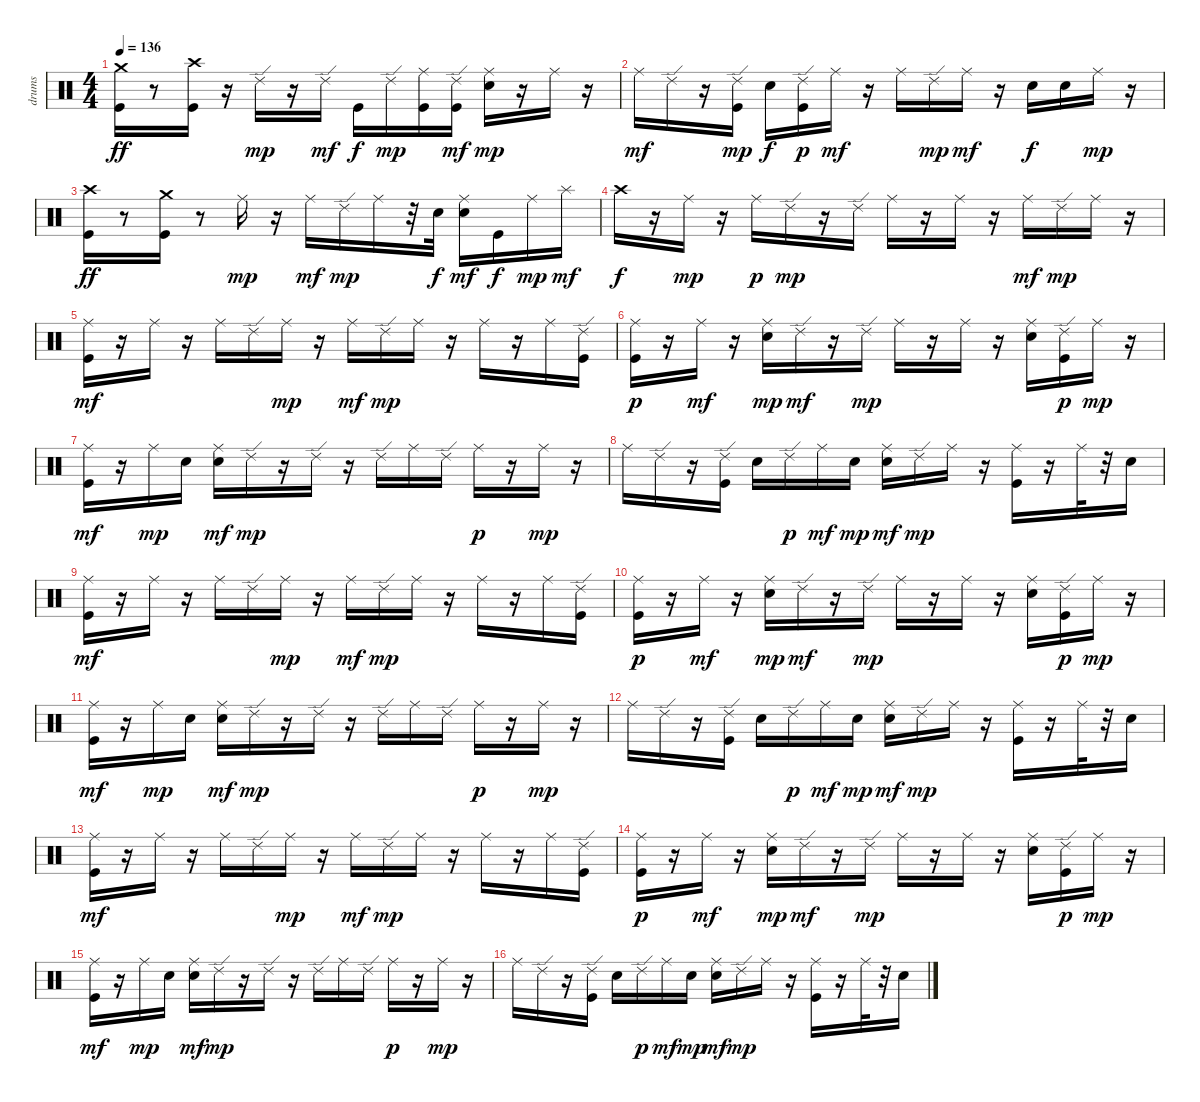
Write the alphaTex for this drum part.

\track ("drums   " "drums   ") {instrument percussion}
\staff {score}
\articulation defaults
\ts (4 4)
\tempo 136
\clef neutral
\ks c
("Kick (hit)" "Crash medium (hit)").16{dy ff} r.8 ("Kick (hit)" "Crash high (hit)").16 r.16 "Ride (edge) 2".16{dy mp} r.16 "Ride (edge) 2".16{dy mf} "Kick (hit)".16{dy f} "Ride (edge) 2".16{dy mp} ("Kick (hit)" "Ride (middle)").16 ("Kick (hit)" "Ride (edge) 2").16{dy mf} ("Electric Snare (hit)" "Ride (middle)").16{dy mp} r.16 "Ride (middle)".16 r.16 |
"Ride (middle)".16{dy mf} "Ride (edge) 2".16 r.16 ("Kick (hit)" "Ride (edge) 2").16{dy mp} "Electric Snare (hit)".16{dy f} ("Kick (hit)" "Ride (edge) 2").16{dy p} "Ride (middle)".16{dy mf} r.16 "Ride (middle)".16 "Ride (edge) 2".16{dy mp} "Ride (middle)".16{dy mf} r.16 "Electric Snare (hit)".16{dy f} "Electric Snare (hit)".16 "Ride (middle)".16{dy mp} r.16 |
("Kick (hit)" "Crash high (hit)").16{dy ff} r.8 ("Kick (hit)" "Crash medium (hit)").16 r.8 "Ride (middle)".16{dy mp} r.16 "Ride (middle)".16{dy mf} "Ride (edge) 2".16{dy mp} "Ride (middle)".16 r.32 "Electric Snare (hit)".32{dy f} ("Electric Snare (hit)" "Ride (middle)").16{dy mf} "Kick (hit)".16{dy f} "Ride (middle)".16{dy mp} "Splash (hit)".16{dy mf} |
"Crash high (hit)".16{dy f} r.16 "Ride (middle)".16{dy mp} r.16 "Ride (middle)".16{dy p} "Ride (edge) 2".16{dy mp} r.16 "Ride (edge) 2".16 "Ride (middle)".16 r.16 "Ride (middle)".16 r.16 "Ride (middle)".16{dy mf} "Ride (edge) 2".16{dy mp} "Ride (middle)".16 r.16 |
("Kick (hit)" "Ride (middle)").16{dy mf} r.16 "Ride (middle)".16 r.16 "Ride (middle)".16 "Ride (edge) 2".16 "Ride (middle)".16{dy mp} r.16 "Ride (middle)".16{dy mf} "Ride (edge) 2".16{dy mp} "Ride (middle)".16 r.16 "Ride (middle)".16 r.16 "Ride (middle)".16 ("Kick (hit)" "Ride (edge) 2").16 |
("Kick (hit)" "Ride (middle)").16{dy p} r.16 "Ride (middle)".16{dy mf} r.16 ("Electric Snare (hit)" "Ride (middle)").16{dy mp} "Ride (edge) 2".16{dy mf} r.16 "Ride (edge) 2".16{dy mp} "Ride (middle)".16 r.16 "Ride (middle)".16 r.16 ("Electric Snare (hit)" "Ride (middle)").16 ("Kick (hit)" "Ride (edge) 2").16{dy p} "Ride (middle)".16{dy mp} r.16 |
("Kick (hit)" "Ride (middle)").16{dy mf} r.16 "Ride (middle)".16{dy mp} "Electric Snare (hit)".16 ("Electric Snare (hit)" "Ride (middle)").16{dy mf} "Ride (edge) 2".16{dy mp} r.16 "Ride (edge) 2".16 r.16 "Ride (edge) 2".16 "Ride (middle)".16 "Ride (edge) 2".16 "Ride (middle)".16{dy p} r.16 "Ride (middle)".16{dy mp} r.16 |
"Ride (middle)".16 "Ride (edge) 2".16 r.16 ("Kick (hit)" "Ride (edge) 2").16 "Electric Snare (hit)".16 "Ride (edge) 2".16{dy p} "Ride (middle)".16{dy mf} "Electric Snare (hit)".16{dy mp} ("Electric Snare (hit)" "Ride (middle)").16{dy mf} "Ride (edge) 2".16{dy mp} "Ride (middle)".16 r.16 ("Kick (hit)" "Ride (middle)").16 r.16 "Ride (middle)".32 r.32 "Electric Snare (hit)".16 |
("Kick (hit)" "Ride (middle)").16{dy mf} r.16 "Ride (middle)".16 r.16 "Ride (middle)".16 "Ride (edge) 2".16 "Ride (middle)".16{dy mp} r.16 "Ride (middle)".16{dy mf} "Ride (edge) 2".16{dy mp} "Ride (middle)".16 r.16 "Ride (middle)".16 r.16 "Ride (middle)".16 ("Kick (hit)" "Ride (edge) 2").16 |
("Kick (hit)" "Ride (middle)").16{dy p} r.16 "Ride (middle)".16{dy mf} r.16 ("Electric Snare (hit)" "Ride (middle)").16{dy mp} "Ride (edge) 2".16{dy mf} r.16 "Ride (edge) 2".16{dy mp} "Ride (middle)".16 r.16 "Ride (middle)".16 r.16 ("Electric Snare (hit)" "Ride (middle)").16 ("Kick (hit)" "Ride (edge) 2").16{dy p} "Ride (middle)".16{dy mp} r.16 |
("Kick (hit)" "Ride (middle)").16{dy mf} r.16 "Ride (middle)".16{dy mp} "Electric Snare (hit)".16 ("Electric Snare (hit)" "Ride (middle)").16{dy mf} "Ride (edge) 2".16{dy mp} r.16 "Ride (edge) 2".16 r.16 "Ride (edge) 2".16 "Ride (middle)".16 "Ride (edge) 2".16 "Ride (middle)".16{dy p} r.16 "Ride (middle)".16{dy mp} r.16 |
"Ride (middle)".16 "Ride (edge) 2".16 r.16 ("Kick (hit)" "Ride (edge) 2").16 "Electric Snare (hit)".16 "Ride (edge) 2".16{dy p} "Ride (middle)".16{dy mf} "Electric Snare (hit)".16{dy mp} ("Electric Snare (hit)" "Ride (middle)").16{dy mf} "Ride (edge) 2".16{dy mp} "Ride (middle)".16 r.16 ("Kick (hit)" "Ride (middle)").16 r.16 "Ride (middle)".32 r.32 "Electric Snare (hit)".16 |
("Kick (hit)" "Ride (middle)").16{dy mf} r.16 "Ride (middle)".16 r.16 "Ride (middle)".16 "Ride (edge) 2".16 "Ride (middle)".16{dy mp} r.16 "Ride (middle)".16{dy mf} "Ride (edge) 2".16{dy mp} "Ride (middle)".16 r.16 "Ride (middle)".16 r.16 "Ride (middle)".16 ("Kick (hit)" "Ride (edge) 2").16 |
("Kick (hit)" "Ride (middle)").16{dy p} r.16 "Ride (middle)".16{dy mf} r.16 ("Electric Snare (hit)" "Ride (middle)").16{dy mp} "Ride (edge) 2".16{dy mf} r.16 "Ride (edge) 2".16{dy mp} "Ride (middle)".16 r.16 "Ride (middle)".16 r.16 ("Electric Snare (hit)" "Ride (middle)").16 ("Kick (hit)" "Ride (edge) 2").16{dy p} "Ride (middle)".16{dy mp} r.16 |
("Kick (hit)" "Ride (middle)").16{dy mf} r.16 "Ride (middle)".16{dy mp} "Electric Snare (hit)".16 ("Electric Snare (hit)" "Ride (middle)").16{dy mf} "Ride (edge) 2".16{dy mp} r.16 "Ride (edge) 2".16 r.16 "Ride (edge) 2".16 "Ride (middle)".16 "Ride (edge) 2".16 "Ride (middle)".16{dy p} r.16 "Ride (middle)".16{dy mp} r.16 |
"Ride (middle)".16 "Ride (edge) 2".16 r.16 ("Kick (hit)" "Ride (edge) 2").16 "Electric Snare (hit)".16 "Ride (edge) 2".16{dy p} "Ride (middle)".16{dy mf} "Electric Snare (hit)".16{dy mp} ("Electric Snare (hit)" "Ride (middle)").16{dy mf} "Ride (edge) 2".16{dy mp} "Ride (middle)".16 r.16 ("Kick (hit)" "Ride (middle)").16 r.16 "Ride (middle)".32 r.32 "Electric Snare (hit)".16
